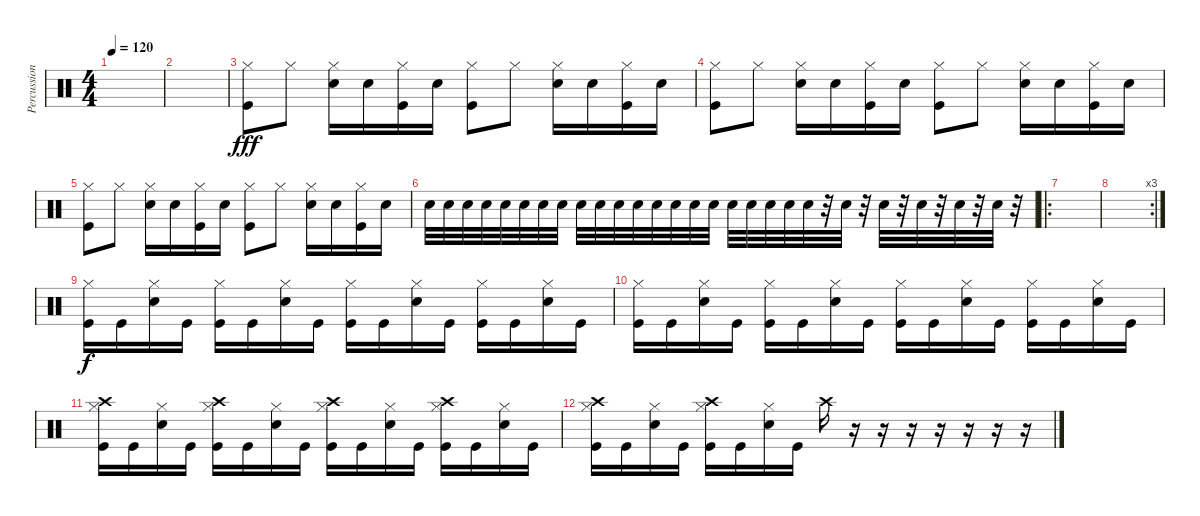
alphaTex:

\track ("Percussion" "Percussion") {instrument percussion}
\staff {score}
\articulation defaults
\ts (4 4)
\tempo 120
\clef neutral
\ks c
|
|
("Hi-Hat (closed)" "Kick (hit)").8{dy fff} "Hi-Hat (closed)".8 ("Hi-Hat (closed)" "Snare (hit) 2").16 "Snare (hit) 2".16 ("Hi-Hat (closed)" "Kick (hit)").16 "Snare (hit) 2".16 ("Hi-Hat (closed)" "Kick (hit)").8 "Hi-Hat (closed)".8 ("Hi-Hat (closed)" "Snare (hit) 2").16 "Snare (hit) 2".16 ("Hi-Hat (closed)" "Kick (hit)").16 "Snare (hit) 2".16 |
("Hi-Hat (closed)" "Kick (hit)").8 "Hi-Hat (closed)".8 ("Hi-Hat (closed)" "Snare (hit) 2").16 "Snare (hit) 2".16 ("Hi-Hat (closed)" "Kick (hit)").16 "Snare (hit) 2".16 ("Hi-Hat (closed)" "Kick (hit)").8 "Hi-Hat (closed)".8 ("Hi-Hat (closed)" "Snare (hit) 2").16 "Snare (hit) 2".16 ("Hi-Hat (closed)" "Kick (hit)").16 "Snare (hit) 2".16 |
("Hi-Hat (closed)" "Kick (hit)").8 "Hi-Hat (closed)".8 ("Hi-Hat (closed)" "Snare (hit) 2").16 "Snare (hit) 2".16 ("Hi-Hat (closed)" "Kick (hit)").16 "Snare (hit) 2".16 ("Hi-Hat (closed)" "Kick (hit)").8 "Hi-Hat (closed)".8 ("Hi-Hat (closed)" "Snare (hit) 2").16 "Snare (hit) 2".16 ("Hi-Hat (closed)" "Kick (hit)").16 "Snare (hit) 2".16 |
"Snare (hit) 2".32 "Snare (hit) 2".32 "Snare (hit) 2".32 "Snare (hit) 2".32 "Snare (hit) 2".32 "Snare (hit) 2".32 "Snare (hit) 2".32 "Snare (hit) 2".32 "Snare (hit) 2".32 "Snare (hit) 2".32 "Snare (hit) 2".32 "Snare (hit) 2".32 "Snare (hit) 2".32 "Snare (hit) 2".32 "Snare (hit) 2".32 "Snare (hit) 2".32 "Snare (hit) 2".32 "Snare (hit) 2".32 "Snare (hit) 2".32 "Snare (hit) 2".32 "Snare (hit) 2".32 r.32 "Snare (hit) 2".32 r.32 "Snare (hit) 2".32 r.32 "Snare (hit) 2".32 r.32 "Snare (hit) 2".32 r.32 "Snare (hit) 2".32 r.32 |
\ro
|
\rc 3
|
("Hi-Hat (closed)" "Kick (hit)").16{dy f} "Kick (hit)".16 ("Snare (hit) 2" "Hi-Hat (closed)").16 "Kick (hit)".16 ("Hi-Hat (closed)" "Kick (hit)").16 "Kick (hit)".16 ("Snare (hit) 2" "Hi-Hat (closed)").16 "Kick (hit)".16 ("Hi-Hat (closed)" "Kick (hit)").16 "Kick (hit)".16 ("Hi-Hat (closed)" "Snare (hit) 2").16 "Kick (hit)".16 ("Hi-Hat (closed)" "Kick (hit)").16 "Kick (hit)".16 ("Hi-Hat (closed)" "Snare (hit) 2").16 "Kick (hit)".16 |
("Hi-Hat (closed)" "Kick (hit)").16 "Kick (hit)".16 ("Snare (hit) 2" "Hi-Hat (closed)").16 "Kick (hit)".16 ("Hi-Hat (closed)" "Kick (hit)").16 "Kick (hit)".16 ("Snare (hit) 2" "Hi-Hat (closed)").16 "Kick (hit)".16 ("Hi-Hat (closed)" "Kick (hit)").16 "Kick (hit)".16 ("Hi-Hat (closed)" "Snare (hit) 2").16 "Kick (hit)".16 ("Hi-Hat (closed)" "Kick (hit)").16 "Kick (hit)".16 ("Hi-Hat (closed)" "Snare (hit) 2").16 "Kick (hit)".16 |
("Crash high (hit)" "Hi-Hat (closed)" "Kick (hit)").16 "Kick (hit)".16 ("Snare (hit) 2" "Hi-Hat (closed)").16 "Kick (hit)".16 ("Crash high (hit)" "Hi-Hat (closed)" "Kick (hit)").16 "Kick (hit)".16 ("Snare (hit) 2" "Hi-Hat (closed)").16 "Kick (hit)".16 ("Crash high (hit)" "Hi-Hat (closed)" "Kick (hit)").16 "Kick (hit)".16 ("Hi-Hat (closed)" "Snare (hit) 2").16 "Kick (hit)".16 ("Crash high (hit)" "Hi-Hat (closed)" "Kick (hit)").16 "Kick (hit)".16 ("Hi-Hat (closed)" "Snare (hit) 2").16 "Kick (hit)".16 |
("Crash high (hit)" "Hi-Hat (closed)" "Kick (hit)").16 "Kick (hit)".16 ("Snare (hit) 2" "Hi-Hat (closed)").16 "Kick (hit)".16 ("Crash high (hit)" "Hi-Hat (closed)" "Kick (hit)").16 "Kick (hit)".16 ("Snare (hit) 2" "Hi-Hat (closed)").16 "Kick (hit)".16 "Crash high (hit)".16 r.16 r.16 r.16 r.16 r.16 r.16 r.16
